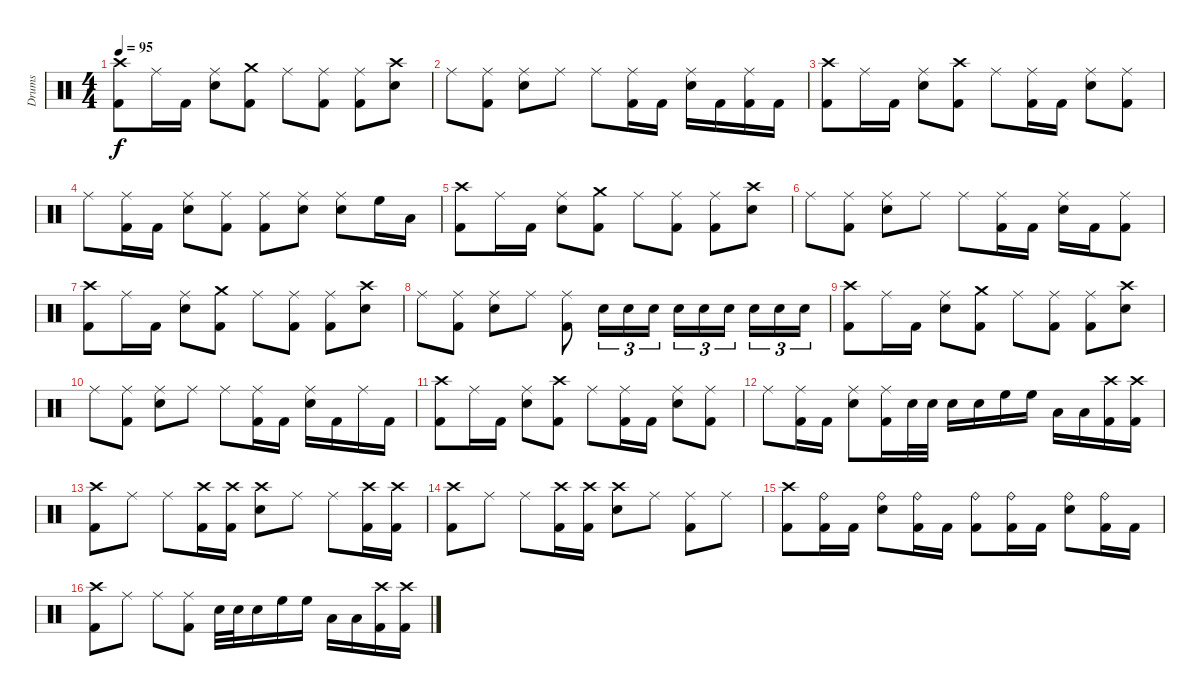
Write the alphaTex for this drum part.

\track ("Drums" "Drums") {instrument percussion}
\staff {score}
\articulation defaults
\ts (4 4)
\tempo 95
\clef neutral
\ks c
("Crash high (hit)" "Kick (hit) 2").8{dy f} "Ride (middle)".16 "Kick (hit) 2".16 ("Ride (middle)" "Snare (hit) 2").8 ("Crash medium (hit)" "Kick (hit) 2").8 "Ride (middle)".8 ("Ride (middle)" "Kick (hit) 2").8 ("Ride (middle)" "Kick (hit) 2").8 ("Crash high (hit)" "Snare (hit) 2").8 |
"Ride (middle)".8 ("Ride (middle)" "Kick (hit) 2").8 ("Ride (middle)" "Snare (hit) 2").8 "Ride (middle)".8 "Ride (middle)".8 ("Ride (middle)" "Kick (hit) 2").16 "Kick (hit) 2".16 ("Ride (middle)" "Snare (hit) 2").16 "Kick (hit) 2".16 ("Ride (middle)" "Kick (hit) 2").16 "Kick (hit) 2".16 |
("Crash high (hit)" "Kick (hit) 2").8 "Ride (middle)".16 "Kick (hit) 2".16 ("Ride (middle)" "Snare (hit) 2").8 ("Crash high (hit)" "Kick (hit) 2").8 "Ride (middle)".8 ("Ride (middle)" "Kick (hit) 2").16 "Kick (hit) 2".16 ("Ride (middle)" "Snare (hit) 2").8 ("Ride (middle)" "Kick (hit) 2").8 |
"Ride (middle)".8 ("Ride (middle)" "Kick (hit) 2").16 "Kick (hit) 2".16 ("Ride (middle)" "Snare (hit) 2").8 ("Ride (middle)" "Kick (hit) 2").8 ("Ride (middle)" "Kick (hit) 2").8 ("Ride (middle)" "Snare (hit) 2").8 ("Ride (middle)" "Snare (hit) 2").8 "High Floor Tom (hit)".16 "Low Tom (hit)".16 |
("Crash high (hit)" "Kick (hit) 2").8 "Ride (middle)".16 "Kick (hit) 2".16 ("Ride (middle)" "Snare (hit) 2").8 ("Crash medium (hit)" "Kick (hit) 2").8 "Ride (middle)".8 ("Ride (middle)" "Kick (hit) 2").8 ("Ride (middle)" "Kick (hit) 2").8 ("Crash high (hit)" "Snare (hit) 2").8 |
"Ride (middle)".8 ("Ride (middle)" "Kick (hit) 2").8 ("Ride (middle)" "Snare (hit) 2").8 "Ride (middle)".8 "Ride (middle)".8 ("Ride (middle)" "Kick (hit) 2").16 "Kick (hit) 2".16 ("Ride (middle)" "Snare (hit) 2").16 "Kick (hit) 2".16 ("Ride (middle)" "Kick (hit) 2").8 |
("Crash high (hit)" "Kick (hit) 2").8 "Ride (middle)".16 "Kick (hit) 2".16 ("Ride (middle)" "Snare (hit) 2").8 ("Crash medium (hit)" "Kick (hit) 2").8 "Ride (middle)".8 ("Ride (middle)" "Kick (hit) 2").8 ("Ride (middle)" "Kick (hit) 2").8 ("Crash high (hit)" "Snare (hit) 2").8 |
"Ride (middle)".8 ("Ride (middle)" "Kick (hit) 2").8 ("Ride (middle)" "Snare (hit) 2").8 "Ride (middle)".8 ("Ride (middle)" "Kick (hit) 2").8 "Snare (hit) 2".16{tu (3 2)} "Snare (hit) 2".16{tu (3 2)} "Snare (hit) 2".16{tu (3 2)} "Snare (hit) 2".16{tu (3 2)} "Snare (hit) 2".16{tu (3 2)} "Snare (hit) 2".16{tu (3 2)} "Snare (hit) 2".16{tu (3 2)} "Snare (hit) 2".16{tu (3 2)} "Snare (hit) 2".16{tu (3 2)} |
("Crash high (hit)" "Kick (hit) 2").8 "Ride (middle)".16 "Kick (hit) 2".16 ("Ride (middle)" "Snare (hit) 2").8 ("Crash medium (hit)" "Kick (hit) 2").8 "Ride (middle)".8 ("Ride (middle)" "Kick (hit) 2").8 ("Ride (middle)" "Kick (hit) 2").8 ("Crash high (hit)" "Snare (hit) 2").8 |
"Ride (middle)".8 ("Ride (middle)" "Kick (hit) 2").8 ("Ride (middle)" "Snare (hit) 2").8 "Ride (middle)".8 "Ride (middle)".8 ("Ride (middle)" "Kick (hit) 2").16 "Kick (hit) 2".16 ("Ride (middle)" "Snare (hit) 2").16 "Kick (hit) 2".16 "Ride (middle)".16 "Kick (hit) 2".16 |
("Crash high (hit)" "Kick (hit) 2").8 "Ride (middle)".16 "Kick (hit) 2".16 ("Ride (middle)" "Snare (hit) 2").8 ("Crash high (hit)" "Kick (hit) 2").8 "Ride (middle)".8 ("Ride (middle)" "Kick (hit) 2").16 "Kick (hit) 2".16 ("Ride (middle)" "Snare (hit) 2").8 ("Ride (middle)" "Kick (hit) 2").8 |
"Ride (middle)".8 ("Ride (middle)" "Kick (hit) 2").16 "Kick (hit) 2".16 ("Ride (middle)" "Snare (hit) 2").8 ("Ride (middle)" "Kick (hit) 2").16 "Snare (hit) 2".32 "Snare (hit) 2".32 "Snare (hit) 2".16 "Snare (hit) 2".16 "High Floor Tom (hit)".16 "High Floor Tom (hit)".16 "Low Tom (hit)".16 "Low Tom (hit)".16 ("Crash high (hit)" "Kick (hit) 2").16 ("Crash high (hit)" "Kick (hit) 2").16 |
("Crash high (hit)" "Kick (hit) 2").8 "Ride (middle)".8 "Ride (middle)".8 ("Crash high (hit)" "Kick (hit) 2").16 ("Crash high (hit)" "Kick (hit) 2").16 ("Crash high (hit)" "Snare (hit) 2").8 "Ride (middle)".8 "Ride (middle)".8 ("Crash high (hit)" "Kick (hit) 2").16 ("Crash high (hit)" "Kick (hit) 2").16 |
("Crash high (hit)" "Kick (hit) 2").8 "Ride (middle)".8 "Ride (middle)".8 ("Crash high (hit)" "Kick (hit) 2").16 ("Crash high (hit)" "Kick (hit) 2").16 ("Crash high (hit)" "Snare (hit) 2").8 "Ride (middle)".8 ("Ride (middle)" "Kick (hit) 2").8 "Ride (middle)".8 |
("Crash high (hit)" "Kick (hit) 2").8 ("Ride (bell)" "Kick (hit) 2").16 "Kick (hit) 2".16 ("Ride (bell)" "Snare (hit) 2").8 ("Ride (bell)" "Kick (hit) 2").16 "Kick (hit) 2".16 ("Ride (bell)" "Kick (hit) 2").8 ("Ride (bell)" "Kick (hit) 2").16 "Kick (hit) 2".16 ("Ride (bell)" "Snare (hit) 2").8 ("Ride (bell)" "Kick (hit) 2").16 "Kick (hit) 2".16 |
("Crash high (hit)" "Kick (hit) 2").8 "Ride (middle)".8 "Ride (middle)".8 ("Ride (middle)" "Kick (hit) 2").8 "Snare (hit) 2".32 "Snare (hit) 2".32 "Snare (hit) 2".16 "High Floor Tom (hit)".16 "High Floor Tom (hit)".16 "Low Tom (hit)".16 "Low Tom (hit)".16 ("Crash high (hit)" "Kick (hit) 2").16 ("Crash high (hit)" "Kick (hit) 2").16
